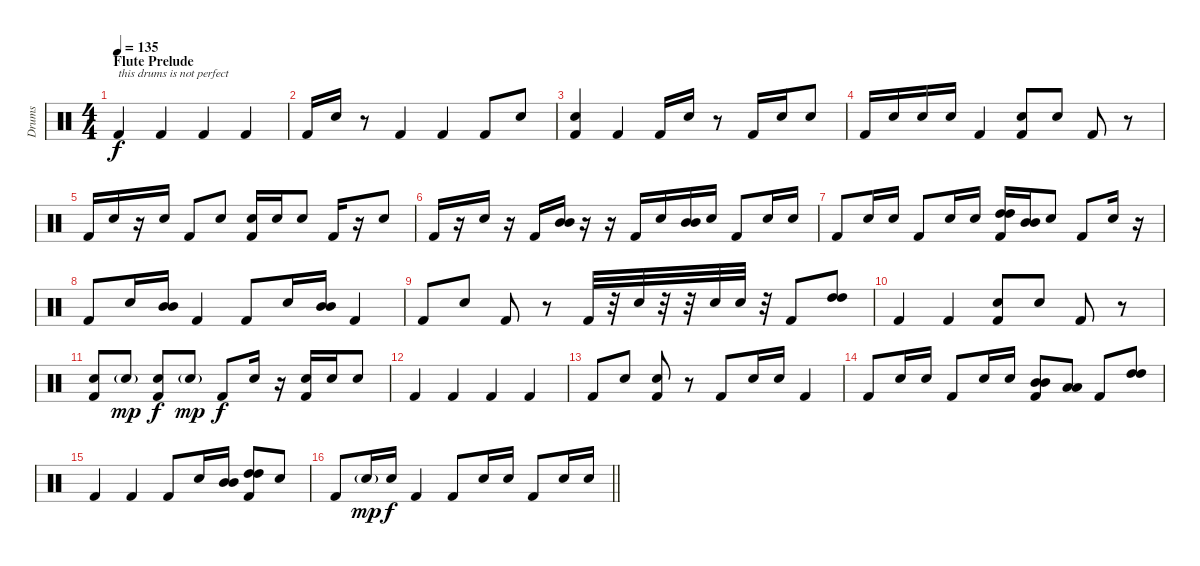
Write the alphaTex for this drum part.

\track ("Drums" "Drums") {instrument percussion}
\staff {score}
\articulation defaults
\ts (4 4)
\section ("" "Flute Prelude")
\tempo 135
\clef neutral
\ks c "Kick (hit) 2".4{txt "this drums is not perfect" dy f volume 16} "Kick (hit) 2".4 "Kick (hit) 2".4 "Kick (hit) 2".4
|
"Kick (hit) 2".16 "Electric Snare (hit)".16 r.8 "Kick (hit) 2".4 "Kick (hit) 2".4 "Kick (hit) 2".8 "Electric Snare (hit)".8 |
("Electric Snare (hit)" "Kick (hit) 2").4 "Kick (hit) 2".4 "Kick (hit) 2".16 "Electric Snare (hit)".16 r.8 "Kick (hit) 2".16 "Electric Snare (hit)".16 "Electric Snare (hit)".8 |
"Kick (hit) 2".16 "Electric Snare (hit)".16 "Electric Snare (hit)".16 "Electric Snare (hit)".16 "Kick (hit) 2".4 ("Electric Snare (hit)" "Kick (hit) 2").8 "Electric Snare (hit)".8 "Kick (hit) 2".8 r.8 |
"Kick (hit) 2".16 "Electric Snare (hit)".16 r.16 "Electric Snare (hit)".16 "Kick (hit) 2".8 "Electric Snare (hit)".8 ("Electric Snare (hit)" "Kick (hit) 2").16 "Electric Snare (hit)".16 "Electric Snare (hit)".8 "Kick (hit) 2".16 r.16 "Electric Snare (hit)".8 |
"Kick (hit) 2".16 r.16 "Electric Snare (hit)".16 r.16 "Kick (hit) 2".16 ("Mid Tom (hit)" "Mid Tom (hit)").16 r.16 r.16 "Kick (hit) 2".16 "Electric Snare (hit)".16 ("Mid Tom (hit)" "Mid Tom (hit)").16 "Electric Snare (hit)".16 "Kick (hit) 2".8 "Electric Snare (hit)".16 "Electric Snare (hit)".16 |
"Kick (hit) 2".8 "Electric Snare (hit)".16 "Electric Snare (hit)".16 "Kick (hit) 2".8 "Electric Snare (hit)".16 "Electric Snare (hit)".16 ("High Tom (hit)" "High Tom (hit)" "Kick (hit) 2").16 ("Mid Tom (hit)" "Mid Tom (hit)").16 "Electric Snare (hit)".8 "Kick (hit) 2".8 "Electric Snare (hit)".16 r.16 |
"Kick (hit) 2".8 "Electric Snare (hit)".16 ("Mid Tom (hit)" "Mid Tom (hit)").16 "Kick (hit) 2".4 "Kick (hit) 2".8 "Electric Snare (hit)".16 ("Mid Tom (hit)" "Mid Tom (hit)").16 "Kick (hit) 2".4 |
"Kick (hit) 2".8 "Electric Snare (hit)".8 "Kick (hit) 2".8 r.8 "Kick (hit) 2".32 r.32 "Electric Snare (hit)".32 r.32 r.32 "Electric Snare (hit)".32 "Electric Snare (hit)".32 r.32 "Kick (hit) 2".8 ("High Tom (hit)" "High Tom (hit)").8 |
"Kick (hit) 2".4 "Kick (hit) 2".4 ("Electric Snare (hit)" "Kick (hit) 2").8 "Electric Snare (hit)".8 "Kick (hit) 2".8 r.8 |
("Electric Snare (hit)" "Kick (hit) 2").8 "Electric Snare (hit)"{g}.8{dy mp} ("Electric Snare (hit)" "Kick (hit) 2").8{dy f} "Electric Snare (hit)"{g}.8{dy mp} "Kick (hit) 2".8{dy f} "Electric Snare (hit)".16 r.16 ("Electric Snare (hit)" "Kick (hit) 2").16 "Electric Snare (hit)".16 "Electric Snare (hit)".8 |
"Kick (hit) 2".4 "Kick (hit) 2".4 "Kick (hit) 2".4 "Kick (hit) 2".4 |
"Kick (hit) 2".8 "Electric Snare (hit)".8 ("Electric Snare (hit)" "Kick (hit) 2").8 r.8 "Kick (hit) 2".8 "Electric Snare (hit)".16 "Electric Snare (hit)".16 "Kick (hit) 2".4 |
"Kick (hit) 2".8 "Electric Snare (hit)".16 "Electric Snare (hit)".16 "Kick (hit) 2".8 "Electric Snare (hit)".16 "Electric Snare (hit)".16 ("Mid Tom (hit)" "Mid Tom (hit)" "Kick (hit) 2").8 ("Low Tom (hit)" "Low Tom (hit)").8 "Kick (hit) 2".8 ("High Tom (hit)" "High Tom (hit)").8 |
"Kick (hit) 2".4 "Kick (hit) 2".4 "Kick (hit) 2".8 "Electric Snare (hit)".16 ("Mid Tom (hit)" "Mid Tom (hit)").16 ("High Tom (hit)" "High Tom (hit)" "Kick (hit) 2").8 "Electric Snare (hit)".8 |
\barLineRight lightlight "Kick (hit) 2".8 "Electric Snare (hit)"{g}.16{dy mp} "Electric Snare (hit)".16{dy f} "Kick (hit) 2".4 "Kick (hit) 2".8 "Electric Snare (hit)".16 "Electric Snare (hit)".16 "Kick (hit) 2".8 "Electric Snare (hit)".16 "Electric Snare (hit)".16
